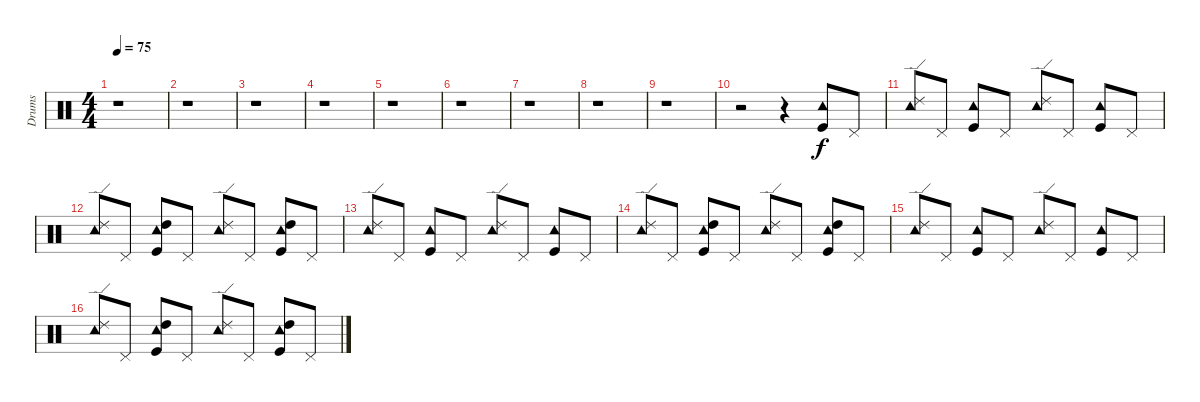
\track ("Drums" "Drums") {instrument percussion}
\staff {score}
\articulation defaults
\ts (4 4)
\tempo 75
\clef neutral
\ks c
r.1{dy f} |
r.1 |
r.1 |
r.1 |
r.1 |
r.1 |
r.1 |
r.1 |
r.1 |
r.2 r.4 ("Kick (hit)" "Tambourine (hit)").8 "Pedal Hi-Hat (hit)".8 |
("Ride (edge) 2" "Tambourine (hit)").8 "Pedal Hi-Hat (hit)".8 ("Kick (hit)" "Tambourine (hit)").8 "Pedal Hi-Hat (hit)".8 ("Ride (edge) 2" "Tambourine (hit)").8 "Pedal Hi-Hat (hit)".8 ("Kick (hit)" "Tambourine (hit)").8 "Pedal Hi-Hat (hit)".8 |
("Ride (edge) 2" "Tambourine (hit)").8 "Pedal Hi-Hat (hit)".8 ("High Tom (hit)" "Kick (hit)" "Tambourine (hit)").8 "Pedal Hi-Hat (hit)".8 ("Ride (edge) 2" "Tambourine (hit)").8 "Pedal Hi-Hat (hit)".8 ("High Tom (hit)" "Kick (hit)" "Tambourine (hit)").8 "Pedal Hi-Hat (hit)".8 |
("Ride (edge) 2" "Tambourine (hit)").8 "Pedal Hi-Hat (hit)".8 ("Kick (hit)" "Tambourine (hit)").8 "Pedal Hi-Hat (hit)".8 ("Ride (edge) 2" "Tambourine (hit)").8 "Pedal Hi-Hat (hit)".8 ("Kick (hit)" "Tambourine (hit)").8 "Pedal Hi-Hat (hit)".8 |
("Ride (edge) 2" "Tambourine (hit)").8 "Pedal Hi-Hat (hit)".8 ("High Tom (hit)" "Kick (hit)" "Tambourine (hit)").8 "Pedal Hi-Hat (hit)".8 ("Ride (edge) 2" "Tambourine (hit)").8 "Pedal Hi-Hat (hit)".8 ("High Tom (hit)" "Kick (hit)" "Tambourine (hit)").8 "Pedal Hi-Hat (hit)".8 |
("Ride (edge) 2" "Tambourine (hit)").8 "Pedal Hi-Hat (hit)".8 ("Kick (hit)" "Tambourine (hit)").8 "Pedal Hi-Hat (hit)".8 ("Ride (edge) 2" "Tambourine (hit)").8 "Pedal Hi-Hat (hit)".8 ("Kick (hit)" "Tambourine (hit)").8 "Pedal Hi-Hat (hit)".8 |
("Ride (edge) 2" "Tambourine (hit)").8 "Pedal Hi-Hat (hit)".8 ("High Tom (hit)" "Kick (hit)" "Tambourine (hit)").8 "Pedal Hi-Hat (hit)".8 ("Ride (edge) 2" "Tambourine (hit)").8 "Pedal Hi-Hat (hit)".8 ("High Tom (hit)" "Kick (hit)" "Tambourine (hit)").8 "Pedal Hi-Hat (hit)".8
